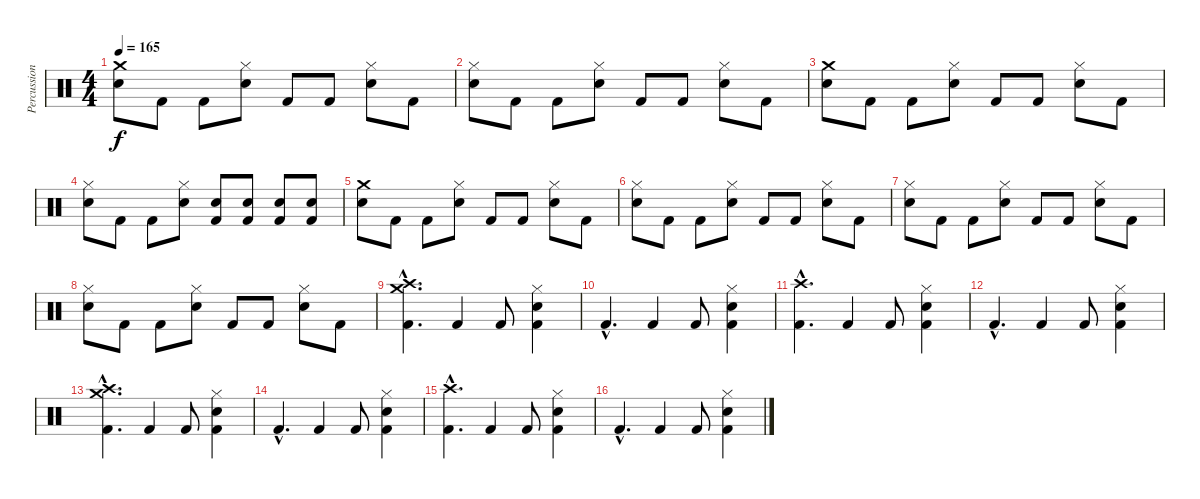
\track ("Percussion" "Percussion") {instrument percussion}
\staff {score}
\articulation defaults
\ts (4 4)
\tempo 165
\clef neutral
\ks c
("Crash medium (hit)" "Electric Snare (hit)").8{dy f} "Kick (hit) 2".8 "Kick (hit) 2".8 ("Hi-Hat (closed)" "Electric Snare (hit)").8 "Kick (hit) 2".8 "Kick (hit) 2".8 ("Hi-Hat (closed)" "Electric Snare (hit)").8 "Kick (hit) 2".8 |
("Hi-Hat (closed)" "Electric Snare (hit)").8 "Kick (hit) 2".8 "Kick (hit) 2".8 ("Hi-Hat (closed)" "Electric Snare (hit)").8 "Kick (hit) 2".8 "Kick (hit) 2".8 ("Hi-Hat (closed)" "Electric Snare (hit)").8 "Kick (hit) 2".8 |
("Crash medium (hit)" "Electric Snare (hit)").8 "Kick (hit) 2".8 "Kick (hit) 2".8 ("Hi-Hat (closed)" "Electric Snare (hit)").8 "Kick (hit) 2".8 "Kick (hit) 2".8 ("Hi-Hat (closed)" "Electric Snare (hit)").8 "Kick (hit) 2".8 |
("Hi-Hat (closed)" "Electric Snare (hit)").8 "Kick (hit) 2".8 "Kick (hit) 2".8 ("Hi-Hat (closed)" "Electric Snare (hit)").8 ("Electric Snare (hit)" "Kick (hit) 2").8 ("Electric Snare (hit)" "Kick (hit) 2").8 ("Electric Snare (hit)" "Kick (hit) 2").8 ("Electric Snare (hit)" "Kick (hit) 2").8 |
("Crash medium (hit)" "Electric Snare (hit)").8 "Kick (hit) 2".8 "Kick (hit) 2".8 ("Hi-Hat (closed)" "Electric Snare (hit)").8 "Kick (hit) 2".8 "Kick (hit) 2".8 ("Hi-Hat (closed)" "Electric Snare (hit)").8 "Kick (hit) 2".8 |
("Hi-Hat (closed)" "Electric Snare (hit)").8 "Kick (hit) 2".8 "Kick (hit) 2".8 ("Hi-Hat (closed)" "Electric Snare (hit)").8 "Kick (hit) 2".8 "Kick (hit) 2".8 ("Hi-Hat (closed)" "Electric Snare (hit)").8 "Kick (hit) 2".8 |
("Hi-Hat (closed)" "Electric Snare (hit)").8 "Kick (hit) 2".8 "Kick (hit) 2".8 ("Hi-Hat (closed)" "Electric Snare (hit)").8 "Kick (hit) 2".8 "Kick (hit) 2".8 ("Hi-Hat (closed)" "Electric Snare (hit)").8 "Kick (hit) 2".8 |
("Hi-Hat (closed)" "Electric Snare (hit)").8 "Kick (hit) 2".8 "Kick (hit) 2".8 ("Hi-Hat (closed)" "Electric Snare (hit)").8 "Kick (hit) 2".8 "Kick (hit) 2".8 ("Hi-Hat (closed)" "Electric Snare (hit)").8 "Kick (hit) 2".8 |
("Crash high (hit)"{hac} "Crash medium (hit)"{hac} "Kick (hit) 2"{hac}).4{d} "Kick (hit) 2".4 "Kick (hit) 2".8 ("Hi-Hat (closed)" "Electric Snare (hit)" "Kick (hit) 2").4 |
"Kick (hit) 2"{hac}.4{d} "Kick (hit) 2".4 "Kick (hit) 2".8 ("Hi-Hat (closed)" "Electric Snare (hit)" "Kick (hit) 2").4 |
("Crash high (hit)"{hac} "Kick (hit) 2"{hac}).4{d} "Kick (hit) 2".4 "Kick (hit) 2".8 ("Hi-Hat (closed)" "Electric Snare (hit)" "Kick (hit) 2").4 |
"Kick (hit) 2"{hac}.4{d} "Kick (hit) 2".4 "Kick (hit) 2".8 ("Hi-Hat (closed)" "Electric Snare (hit)" "Kick (hit) 2").4 |
("Crash high (hit)"{hac} "Crash medium (hit)"{hac} "Kick (hit) 2"{hac}).4{d} "Kick (hit) 2".4 "Kick (hit) 2".8 ("Hi-Hat (closed)" "Electric Snare (hit)" "Kick (hit) 2").4 |
"Kick (hit) 2"{hac}.4{d} "Kick (hit) 2".4 "Kick (hit) 2".8 ("Hi-Hat (closed)" "Electric Snare (hit)" "Kick (hit) 2").4 |
("Crash high (hit)"{hac} "Kick (hit) 2"{hac}).4{d} "Kick (hit) 2".4 "Kick (hit) 2".8 ("Hi-Hat (closed)" "Electric Snare (hit)" "Kick (hit) 2").4 |
"Kick (hit) 2"{hac}.4{d} "Kick (hit) 2".4 "Kick (hit) 2".8 ("Hi-Hat (closed)" "Electric Snare (hit)" "Kick (hit) 2").4
